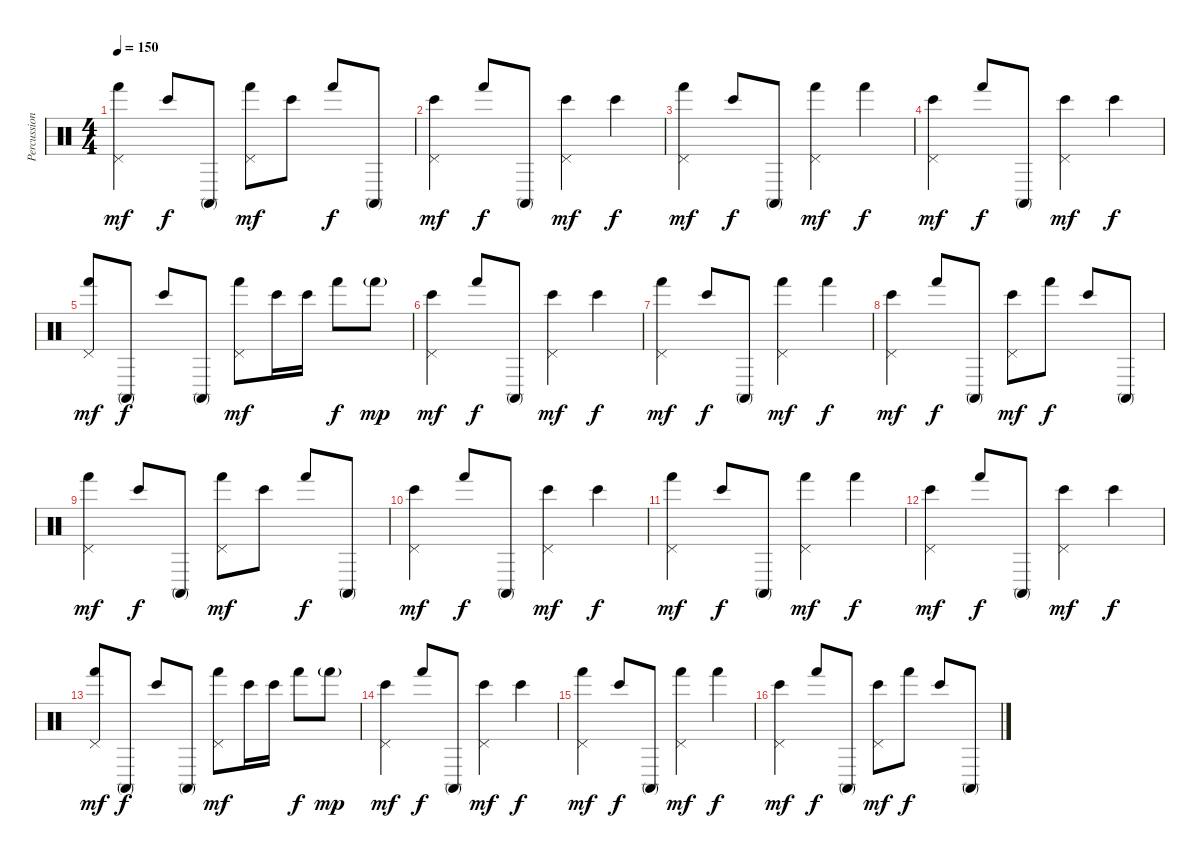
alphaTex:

\track ("Percussions" "Percussion") {instrument percussion}
\staff {score}
\articulation defaults
\ts (4 4)
\tempo 150
\clef neutral
\ks c
("Pedal Hi-Hat (hit)" "Hand (hit)").4{dy mf} "Bongo High (hit)".8{dy f} "Conga high (mute)".8 ("Pedal Hi-Hat (hit)" "Hand (hit)").8{dy mf} "Bongo High (hit)".8 "Hand (hit)".8{dy f} "Conga high (mute)".8 |
("Pedal Hi-Hat (hit)" "Bongo High (hit)").4{dy mf} "Hand (hit)".8{dy f} "Conga high (mute)".8 ("Pedal Hi-Hat (hit)" "Bongo High (hit)").4{dy mf} "Bongo High (hit)".4{dy f} |
("Pedal Hi-Hat (hit)" "Hand (hit)").4{dy mf} "Bongo High (hit)".8{dy f} "Conga high (mute)".8 ("Pedal Hi-Hat (hit)" "Hand (hit)").4{dy mf} "Hand (hit)".4{dy f} |
("Pedal Hi-Hat (hit)" "Bongo High (hit)").4{dy mf} "Hand (hit)".8{dy f} "Conga high (mute)".8 ("Pedal Hi-Hat (hit)" "Bongo High (hit)").4{dy mf} "Bongo High (hit)".4{dy f} |
("Pedal Hi-Hat (hit)" "Hand (hit)").8{dy mf} "Conga high (mute)".8{dy f} "Bongo High (hit)".8 "Conga high (mute)".8 ("Pedal Hi-Hat (hit)" "Hand (hit)").8{dy mf} "Bongo High (hit)".16 "Bongo High (hit)".16 "Hand (hit)".8{dy f} "Hand (hit)"{g}.8{dy mp} |
("Pedal Hi-Hat (hit)" "Bongo High (hit)").4{dy mf} "Hand (hit)".8{dy f} "Conga high (mute)".8 ("Pedal Hi-Hat (hit)" "Bongo High (hit)").4{dy mf} "Bongo High (hit)".4{dy f} |
("Pedal Hi-Hat (hit)" "Hand (hit)").4{dy mf} "Bongo High (hit)".8{dy f} "Conga high (mute)".8 ("Pedal Hi-Hat (hit)" "Hand (hit)").4{dy mf} "Hand (hit)".4{dy f} |
("Pedal Hi-Hat (hit)" "Bongo High (hit)").4{dy mf} "Hand (hit)".8{dy f} "Conga high (mute)".8 ("Pedal Hi-Hat (hit)" "Bongo High (hit)").8{dy mf} "Hand (hit)".8{dy f} "Bongo High (hit)".8 "Conga high (mute)".8 |
("Pedal Hi-Hat (hit)" "Hand (hit)").4{dy mf} "Bongo High (hit)".8{dy f} "Conga high (mute)".8 ("Pedal Hi-Hat (hit)" "Hand (hit)").8{dy mf} "Bongo High (hit)".8 "Hand (hit)".8{dy f} "Conga high (mute)".8 |
("Pedal Hi-Hat (hit)" "Bongo High (hit)").4{dy mf} "Hand (hit)".8{dy f} "Conga high (mute)".8 ("Pedal Hi-Hat (hit)" "Bongo High (hit)").4{dy mf} "Bongo High (hit)".4{dy f} |
("Pedal Hi-Hat (hit)" "Hand (hit)").4{dy mf} "Bongo High (hit)".8{dy f} "Conga high (mute)".8 ("Pedal Hi-Hat (hit)" "Hand (hit)").4{dy mf} "Hand (hit)".4{dy f} |
("Pedal Hi-Hat (hit)" "Bongo High (hit)").4{dy mf} "Hand (hit)".8{dy f} "Conga high (mute)".8 ("Pedal Hi-Hat (hit)" "Bongo High (hit)").4{dy mf} "Bongo High (hit)".4{dy f} |
("Pedal Hi-Hat (hit)" "Hand (hit)").8{dy mf} "Conga high (mute)".8{dy f} "Bongo High (hit)".8 "Conga high (mute)".8 ("Pedal Hi-Hat (hit)" "Hand (hit)").8{dy mf} "Bongo High (hit)".16 "Bongo High (hit)".16 "Hand (hit)".8{dy f} "Hand (hit)"{g}.8{dy mp} |
("Pedal Hi-Hat (hit)" "Bongo High (hit)").4{dy mf} "Hand (hit)".8{dy f} "Conga high (mute)".8 ("Pedal Hi-Hat (hit)" "Bongo High (hit)").4{dy mf} "Bongo High (hit)".4{dy f} |
("Pedal Hi-Hat (hit)" "Hand (hit)").4{dy mf} "Bongo High (hit)".8{dy f} "Conga high (mute)".8 ("Pedal Hi-Hat (hit)" "Hand (hit)").4{dy mf} "Hand (hit)".4{dy f} |
("Pedal Hi-Hat (hit)" "Bongo High (hit)").4{dy mf} "Hand (hit)".8{dy f} "Conga high (mute)".8 ("Pedal Hi-Hat (hit)" "Bongo High (hit)").8{dy mf} "Hand (hit)".8{dy f} "Bongo High (hit)".8 "Conga high (mute)".8
